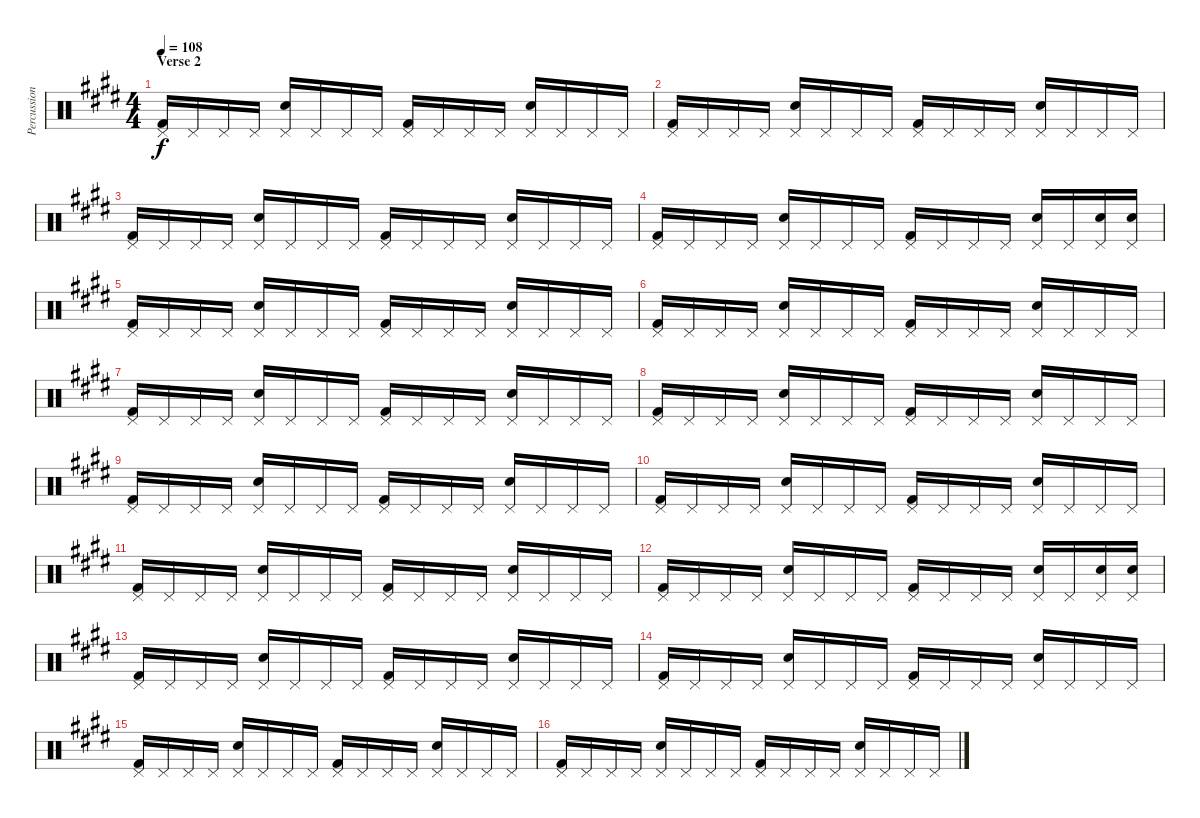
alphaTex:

\track ("Percussion" "Percussion") {instrument percussion}
\staff {score}
\articulation defaults
\ts (4 4)
\section ("" "Verse 2")
\tempo 108
\clef neutral
\ks e
("Pedal Hi-Hat (hit)" "Kick (hit) 2").16{dy f} "Pedal Hi-Hat (hit)".16 "Pedal Hi-Hat (hit)".16 "Pedal Hi-Hat (hit)".16 ("Pedal Hi-Hat (hit)" "Snare (hit) 2").16 "Pedal Hi-Hat (hit)".16 "Pedal Hi-Hat (hit)".16 "Pedal Hi-Hat (hit)".16 ("Pedal Hi-Hat (hit)" "Kick (hit) 2").16 "Pedal Hi-Hat (hit)".16 "Pedal Hi-Hat (hit)".16 "Pedal Hi-Hat (hit)".16 ("Pedal Hi-Hat (hit)" "Snare (hit) 2").16 "Pedal Hi-Hat (hit)".16 "Pedal Hi-Hat (hit)".16 "Pedal Hi-Hat (hit)".16 |
("Pedal Hi-Hat (hit)" "Kick (hit) 2").16 "Pedal Hi-Hat (hit)".16 "Pedal Hi-Hat (hit)".16 "Pedal Hi-Hat (hit)".16 ("Pedal Hi-Hat (hit)" "Snare (hit) 2").16 "Pedal Hi-Hat (hit)".16 "Pedal Hi-Hat (hit)".16 "Pedal Hi-Hat (hit)".16 ("Pedal Hi-Hat (hit)" "Kick (hit) 2").16 "Pedal Hi-Hat (hit)".16 "Pedal Hi-Hat (hit)".16 "Pedal Hi-Hat (hit)".16 ("Pedal Hi-Hat (hit)" "Snare (hit) 2").16 "Pedal Hi-Hat (hit)".16 "Pedal Hi-Hat (hit)".16 "Pedal Hi-Hat (hit)".16 |
("Pedal Hi-Hat (hit)" "Kick (hit) 2").16 "Pedal Hi-Hat (hit)".16 "Pedal Hi-Hat (hit)".16 "Pedal Hi-Hat (hit)".16 ("Pedal Hi-Hat (hit)" "Snare (hit) 2").16 "Pedal Hi-Hat (hit)".16 "Pedal Hi-Hat (hit)".16 "Pedal Hi-Hat (hit)".16 ("Pedal Hi-Hat (hit)" "Kick (hit) 2").16 "Pedal Hi-Hat (hit)".16 "Pedal Hi-Hat (hit)".16 "Pedal Hi-Hat (hit)".16 ("Pedal Hi-Hat (hit)" "Snare (hit) 2").16 "Pedal Hi-Hat (hit)".16 "Pedal Hi-Hat (hit)".16 "Pedal Hi-Hat (hit)".16 |
("Pedal Hi-Hat (hit)" "Kick (hit) 2").16 "Pedal Hi-Hat (hit)".16 "Pedal Hi-Hat (hit)".16 "Pedal Hi-Hat (hit)".16 ("Pedal Hi-Hat (hit)" "Snare (hit) 2").16 "Pedal Hi-Hat (hit)".16 "Pedal Hi-Hat (hit)".16 "Pedal Hi-Hat (hit)".16 ("Pedal Hi-Hat (hit)" "Kick (hit) 2").16 "Pedal Hi-Hat (hit)".16 "Pedal Hi-Hat (hit)".16 "Pedal Hi-Hat (hit)".16 ("Pedal Hi-Hat (hit)" "Snare (hit) 2").16 "Pedal Hi-Hat (hit)".16 ("Pedal Hi-Hat (hit)" "Snare (hit) 2").16 ("Pedal Hi-Hat (hit)" "Snare (hit) 2").16 |
("Pedal Hi-Hat (hit)" "Kick (hit) 2").16 "Pedal Hi-Hat (hit)".16 "Pedal Hi-Hat (hit)".16 "Pedal Hi-Hat (hit)".16 ("Pedal Hi-Hat (hit)" "Snare (hit) 2").16 "Pedal Hi-Hat (hit)".16 "Pedal Hi-Hat (hit)".16 "Pedal Hi-Hat (hit)".16 ("Pedal Hi-Hat (hit)" "Kick (hit) 2").16 "Pedal Hi-Hat (hit)".16 "Pedal Hi-Hat (hit)".16 "Pedal Hi-Hat (hit)".16 ("Pedal Hi-Hat (hit)" "Snare (hit) 2").16 "Pedal Hi-Hat (hit)".16 "Pedal Hi-Hat (hit)".16 "Pedal Hi-Hat (hit)".16 |
("Pedal Hi-Hat (hit)" "Kick (hit) 2").16 "Pedal Hi-Hat (hit)".16 "Pedal Hi-Hat (hit)".16 "Pedal Hi-Hat (hit)".16 ("Pedal Hi-Hat (hit)" "Snare (hit) 2").16 "Pedal Hi-Hat (hit)".16 "Pedal Hi-Hat (hit)".16 "Pedal Hi-Hat (hit)".16 ("Pedal Hi-Hat (hit)" "Kick (hit) 2").16 "Pedal Hi-Hat (hit)".16 "Pedal Hi-Hat (hit)".16 "Pedal Hi-Hat (hit)".16 ("Pedal Hi-Hat (hit)" "Snare (hit) 2").16 "Pedal Hi-Hat (hit)".16 "Pedal Hi-Hat (hit)".16 "Pedal Hi-Hat (hit)".16 |
("Pedal Hi-Hat (hit)" "Kick (hit) 2").16 "Pedal Hi-Hat (hit)".16 "Pedal Hi-Hat (hit)".16 "Pedal Hi-Hat (hit)".16 ("Pedal Hi-Hat (hit)" "Snare (hit) 2").16 "Pedal Hi-Hat (hit)".16 "Pedal Hi-Hat (hit)".16 "Pedal Hi-Hat (hit)".16 ("Pedal Hi-Hat (hit)" "Kick (hit) 2").16 "Pedal Hi-Hat (hit)".16 "Pedal Hi-Hat (hit)".16 "Pedal Hi-Hat (hit)".16 ("Pedal Hi-Hat (hit)" "Snare (hit) 2").16 "Pedal Hi-Hat (hit)".16 "Pedal Hi-Hat (hit)".16 "Pedal Hi-Hat (hit)".16 |
("Pedal Hi-Hat (hit)" "Kick (hit) 2").16 "Pedal Hi-Hat (hit)".16 "Pedal Hi-Hat (hit)".16 "Pedal Hi-Hat (hit)".16 ("Pedal Hi-Hat (hit)" "Snare (hit) 2").16 "Pedal Hi-Hat (hit)".16 "Pedal Hi-Hat (hit)".16 "Pedal Hi-Hat (hit)".16 ("Pedal Hi-Hat (hit)" "Kick (hit) 2").16 "Pedal Hi-Hat (hit)".16 "Pedal Hi-Hat (hit)".16 "Pedal Hi-Hat (hit)".16 ("Pedal Hi-Hat (hit)" "Snare (hit) 2").16 "Pedal Hi-Hat (hit)".16 "Pedal Hi-Hat (hit)".16 "Pedal Hi-Hat (hit)".16 |
("Pedal Hi-Hat (hit)" "Kick (hit) 2").16 "Pedal Hi-Hat (hit)".16 "Pedal Hi-Hat (hit)".16 "Pedal Hi-Hat (hit)".16 ("Pedal Hi-Hat (hit)" "Snare (hit) 2").16 "Pedal Hi-Hat (hit)".16 "Pedal Hi-Hat (hit)".16 "Pedal Hi-Hat (hit)".16 ("Pedal Hi-Hat (hit)" "Kick (hit) 2").16 "Pedal Hi-Hat (hit)".16 "Pedal Hi-Hat (hit)".16 "Pedal Hi-Hat (hit)".16 ("Pedal Hi-Hat (hit)" "Snare (hit) 2").16 "Pedal Hi-Hat (hit)".16 "Pedal Hi-Hat (hit)".16 "Pedal Hi-Hat (hit)".16 |
("Pedal Hi-Hat (hit)" "Kick (hit) 2").16 "Pedal Hi-Hat (hit)".16 "Pedal Hi-Hat (hit)".16 "Pedal Hi-Hat (hit)".16 ("Pedal Hi-Hat (hit)" "Snare (hit) 2").16 "Pedal Hi-Hat (hit)".16 "Pedal Hi-Hat (hit)".16 "Pedal Hi-Hat (hit)".16 ("Pedal Hi-Hat (hit)" "Kick (hit) 2").16 "Pedal Hi-Hat (hit)".16 "Pedal Hi-Hat (hit)".16 "Pedal Hi-Hat (hit)".16 ("Pedal Hi-Hat (hit)" "Snare (hit) 2").16 "Pedal Hi-Hat (hit)".16 "Pedal Hi-Hat (hit)".16 "Pedal Hi-Hat (hit)".16 |
("Pedal Hi-Hat (hit)" "Kick (hit) 2").16 "Pedal Hi-Hat (hit)".16 "Pedal Hi-Hat (hit)".16 "Pedal Hi-Hat (hit)".16 ("Pedal Hi-Hat (hit)" "Snare (hit) 2").16 "Pedal Hi-Hat (hit)".16 "Pedal Hi-Hat (hit)".16 "Pedal Hi-Hat (hit)".16 ("Pedal Hi-Hat (hit)" "Kick (hit) 2").16 "Pedal Hi-Hat (hit)".16 "Pedal Hi-Hat (hit)".16 "Pedal Hi-Hat (hit)".16 ("Pedal Hi-Hat (hit)" "Snare (hit) 2").16 "Pedal Hi-Hat (hit)".16 "Pedal Hi-Hat (hit)".16 "Pedal Hi-Hat (hit)".16 |
("Pedal Hi-Hat (hit)" "Kick (hit) 2").16 "Pedal Hi-Hat (hit)".16 "Pedal Hi-Hat (hit)".16 "Pedal Hi-Hat (hit)".16 ("Pedal Hi-Hat (hit)" "Snare (hit) 2").16 "Pedal Hi-Hat (hit)".16 "Pedal Hi-Hat (hit)".16 "Pedal Hi-Hat (hit)".16 ("Pedal Hi-Hat (hit)" "Kick (hit) 2").16 "Pedal Hi-Hat (hit)".16 "Pedal Hi-Hat (hit)".16 "Pedal Hi-Hat (hit)".16 ("Pedal Hi-Hat (hit)" "Snare (hit) 2").16 "Pedal Hi-Hat (hit)".16 ("Pedal Hi-Hat (hit)" "Snare (hit) 2").16 ("Pedal Hi-Hat (hit)" "Snare (hit) 2").16 |
("Pedal Hi-Hat (hit)" "Kick (hit) 2").16 "Pedal Hi-Hat (hit)".16 "Pedal Hi-Hat (hit)".16 "Pedal Hi-Hat (hit)".16 ("Pedal Hi-Hat (hit)" "Snare (hit) 2").16 "Pedal Hi-Hat (hit)".16 "Pedal Hi-Hat (hit)".16 "Pedal Hi-Hat (hit)".16 ("Pedal Hi-Hat (hit)" "Kick (hit) 2").16 "Pedal Hi-Hat (hit)".16 "Pedal Hi-Hat (hit)".16 "Pedal Hi-Hat (hit)".16 ("Pedal Hi-Hat (hit)" "Snare (hit) 2").16 "Pedal Hi-Hat (hit)".16 "Pedal Hi-Hat (hit)".16 "Pedal Hi-Hat (hit)".16 |
("Pedal Hi-Hat (hit)" "Kick (hit) 2").16 "Pedal Hi-Hat (hit)".16 "Pedal Hi-Hat (hit)".16 "Pedal Hi-Hat (hit)".16 ("Pedal Hi-Hat (hit)" "Snare (hit) 2").16 "Pedal Hi-Hat (hit)".16 "Pedal Hi-Hat (hit)".16 "Pedal Hi-Hat (hit)".16 ("Pedal Hi-Hat (hit)" "Kick (hit) 2").16 "Pedal Hi-Hat (hit)".16 "Pedal Hi-Hat (hit)".16 "Pedal Hi-Hat (hit)".16 ("Pedal Hi-Hat (hit)" "Snare (hit) 2").16 "Pedal Hi-Hat (hit)".16 "Pedal Hi-Hat (hit)".16 "Pedal Hi-Hat (hit)".16 |
("Pedal Hi-Hat (hit)" "Kick (hit) 2").16 "Pedal Hi-Hat (hit)".16 "Pedal Hi-Hat (hit)".16 "Pedal Hi-Hat (hit)".16 ("Pedal Hi-Hat (hit)" "Snare (hit) 2").16 "Pedal Hi-Hat (hit)".16 "Pedal Hi-Hat (hit)".16 "Pedal Hi-Hat (hit)".16 ("Pedal Hi-Hat (hit)" "Kick (hit) 2").16 "Pedal Hi-Hat (hit)".16 "Pedal Hi-Hat (hit)".16 "Pedal Hi-Hat (hit)".16 ("Pedal Hi-Hat (hit)" "Snare (hit) 2").16 "Pedal Hi-Hat (hit)".16 "Pedal Hi-Hat (hit)".16 "Pedal Hi-Hat (hit)".16 |
("Pedal Hi-Hat (hit)" "Kick (hit) 2").16 "Pedal Hi-Hat (hit)".16 "Pedal Hi-Hat (hit)".16 "Pedal Hi-Hat (hit)".16 ("Pedal Hi-Hat (hit)" "Snare (hit) 2").16 "Pedal Hi-Hat (hit)".16 "Pedal Hi-Hat (hit)".16 "Pedal Hi-Hat (hit)".16 ("Pedal Hi-Hat (hit)" "Kick (hit) 2").16 "Pedal Hi-Hat (hit)".16 "Pedal Hi-Hat (hit)".16 "Pedal Hi-Hat (hit)".16 ("Pedal Hi-Hat (hit)" "Snare (hit) 2").16 "Pedal Hi-Hat (hit)".16 "Pedal Hi-Hat (hit)".16 "Pedal Hi-Hat (hit)".16
